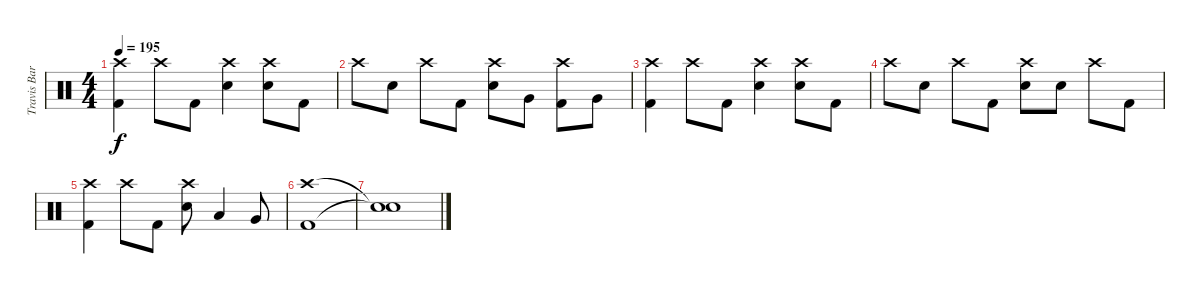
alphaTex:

\track ("Travis Barker (Schlagzeug)" "Travis Bar") {instrument percussion}
\staff {score}
\articulation defaults
\ts (4 4)
\tempo 195
\clef neutral
\ks c
("Crash high (hit)" "Kick (hit) 2").4{dy f} "Crash high (hit)".8 "Kick (hit) 2".8 ("Crash high (hit)" "Electric Snare (hit)").4 ("Crash high (hit)" "Electric Snare (hit)").8 "Kick (hit) 2".8 |
"Crash high (hit)".8 "Electric Snare (hit)".8 "Crash high (hit)".8 "Kick (hit) 2".8 ("Crash high (hit)" "Electric Snare (hit)").8 "Very Low Tom (hit)".8 ("Crash high (hit)" "Kick (hit) 2").8 "Very Low Tom (hit)".8 |
("Crash high (hit)" "Kick (hit) 2").4 "Crash high (hit)".8 "Kick (hit) 2".8 ("Crash high (hit)" "Electric Snare (hit)").4 ("Crash high (hit)" "Electric Snare (hit)").8 "Kick (hit) 2".8 |
"Crash high (hit)".8 "Electric Snare (hit)".8 "Crash high (hit)".8 "Kick (hit) 2".8 ("Crash high (hit)" "Electric Snare (hit)").8 "Electric Snare (hit)".8 "Crash high (hit)".8 "Kick (hit) 2".8 |
("Crash high (hit)" "Kick (hit) 2").4 "Crash high (hit)".8 "Kick (hit) 2".8 ("Crash high (hit)" "Electric Snare (hit)").8 "Low Tom (hit)".4 "Very Low Tom (hit)".8 |
("Crash high (hit)" "Kick (hit) 2").1 |
("Snare (hit)"{t} "Snare (hit)"{t}).1
